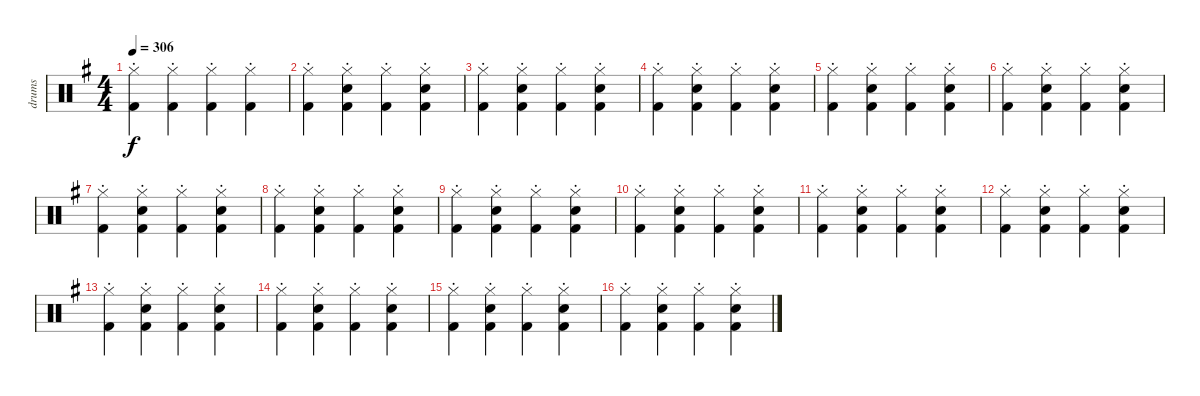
\track ("drums" "drums") {instrument percussion}
\staff {score}
\articulation defaults
\ts (4 4)
\tempo 306
\clef neutral
\ks g
("Hi-Hat (closed)"{st} "Kick (hit) 2").4{dy f} ("Hi-Hat (closed)"{st} "Kick (hit) 2").4 ("Hi-Hat (closed)"{st} "Kick (hit) 2").4 ("Hi-Hat (closed)"{st} "Kick (hit) 2").4 |
("Hi-Hat (closed)"{st} "Kick (hit) 2").4 ("Hi-Hat (closed)"{st} "Electric Snare (hit)" "Kick (hit) 2").4 ("Hi-Hat (closed)"{st} "Kick (hit) 2").4 ("Hi-Hat (closed)"{st} "Electric Snare (hit)" "Kick (hit) 2").4 |
("Hi-Hat (closed)"{st} "Kick (hit) 2").4 ("Hi-Hat (closed)"{st} "Electric Snare (hit)" "Kick (hit) 2").4 ("Hi-Hat (closed)"{st} "Kick (hit) 2").4 ("Hi-Hat (closed)"{st} "Electric Snare (hit)" "Kick (hit) 2").4 |
("Hi-Hat (closed)"{st} "Kick (hit) 2").4 ("Hi-Hat (closed)"{st} "Electric Snare (hit)" "Kick (hit) 2").4 ("Hi-Hat (closed)"{st} "Kick (hit) 2").4 ("Hi-Hat (closed)"{st} "Electric Snare (hit)" "Kick (hit) 2").4 |
("Hi-Hat (closed)"{st} "Kick (hit) 2").4 ("Hi-Hat (closed)"{st} "Electric Snare (hit)" "Kick (hit) 2").4 ("Hi-Hat (closed)"{st} "Kick (hit) 2").4 ("Hi-Hat (closed)"{st} "Electric Snare (hit)" "Kick (hit) 2").4 |
("Hi-Hat (closed)"{st} "Kick (hit) 2").4 ("Hi-Hat (closed)"{st} "Electric Snare (hit)" "Kick (hit) 2").4 ("Hi-Hat (closed)"{st} "Kick (hit) 2").4 ("Hi-Hat (closed)"{st} "Electric Snare (hit)" "Kick (hit) 2").4 |
("Hi-Hat (closed)"{st} "Kick (hit) 2").4 ("Hi-Hat (closed)"{st} "Electric Snare (hit)" "Kick (hit) 2").4 ("Hi-Hat (closed)"{st} "Kick (hit) 2").4 ("Hi-Hat (closed)"{st} "Electric Snare (hit)" "Kick (hit) 2").4 |
("Hi-Hat (closed)"{st} "Kick (hit) 2").4 ("Hi-Hat (closed)"{st} "Electric Snare (hit)" "Kick (hit) 2").4 ("Hi-Hat (closed)"{st} "Kick (hit) 2").4 ("Hi-Hat (closed)"{st} "Electric Snare (hit)" "Kick (hit) 2").4 |
("Hi-Hat (closed)"{st} "Kick (hit) 2").4 ("Hi-Hat (closed)"{st} "Electric Snare (hit)" "Kick (hit) 2").4 ("Hi-Hat (closed)"{st} "Kick (hit) 2").4 ("Hi-Hat (closed)"{st} "Electric Snare (hit)" "Kick (hit) 2").4 |
("Hi-Hat (closed)"{st} "Kick (hit) 2").4 ("Hi-Hat (closed)"{st} "Electric Snare (hit)" "Kick (hit) 2").4 ("Hi-Hat (closed)"{st} "Kick (hit) 2").4 ("Hi-Hat (closed)"{st} "Electric Snare (hit)" "Kick (hit) 2").4 |
("Hi-Hat (closed)"{st} "Kick (hit) 2").4 ("Hi-Hat (closed)"{st} "Electric Snare (hit)" "Kick (hit) 2").4 ("Hi-Hat (closed)"{st} "Kick (hit) 2").4 ("Hi-Hat (closed)"{st} "Electric Snare (hit)" "Kick (hit) 2").4 |
("Hi-Hat (closed)"{st} "Kick (hit) 2").4 ("Hi-Hat (closed)"{st} "Electric Snare (hit)" "Kick (hit) 2").4 ("Hi-Hat (closed)"{st} "Kick (hit) 2").4 ("Hi-Hat (closed)"{st} "Electric Snare (hit)" "Kick (hit) 2").4 |
("Hi-Hat (closed)"{st} "Kick (hit) 2").4 ("Hi-Hat (closed)"{st} "Electric Snare (hit)" "Kick (hit) 2").4 ("Hi-Hat (closed)"{st} "Kick (hit) 2").4 ("Hi-Hat (closed)"{st} "Electric Snare (hit)" "Kick (hit) 2").4 |
("Hi-Hat (closed)"{st} "Kick (hit) 2").4 ("Hi-Hat (closed)"{st} "Electric Snare (hit)" "Kick (hit) 2").4 ("Hi-Hat (closed)"{st} "Kick (hit) 2").4 ("Hi-Hat (closed)"{st} "Electric Snare (hit)" "Kick (hit) 2").4 |
("Hi-Hat (closed)"{st} "Kick (hit) 2").4 ("Hi-Hat (closed)"{st} "Electric Snare (hit)" "Kick (hit) 2").4 ("Hi-Hat (closed)"{st} "Kick (hit) 2").4 ("Hi-Hat (closed)"{st} "Electric Snare (hit)" "Kick (hit) 2").4 |
("Hi-Hat (closed)"{st} "Kick (hit) 2").4 ("Hi-Hat (closed)"{st} "Electric Snare (hit)" "Kick (hit) 2").4 ("Hi-Hat (closed)"{st} "Kick (hit) 2").4 ("Hi-Hat (closed)"{st} "Electric Snare (hit)" "Kick (hit) 2").4
